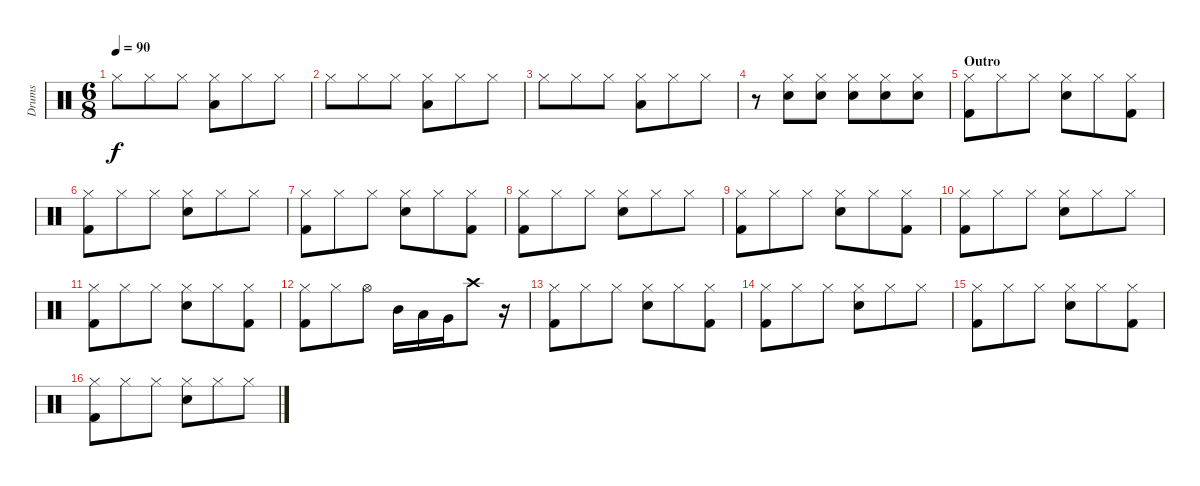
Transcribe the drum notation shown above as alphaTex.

\track ("Drums" "Drums") {instrument percussion}
\staff {score}
\articulation defaults
\ts (6 8)
\tempo 90
\clef neutral
\ks c "Hi-Hat (closed)".8{dy f} "Hi-Hat (closed)".8 "Hi-Hat (closed)".8
("Hi-Hat (closed)" "Low Floor Tom (hit)").8 "Hi-Hat (closed)".8 "Hi-Hat (closed)".8 |
"Hi-Hat (closed)".8 "Hi-Hat (closed)".8 "Hi-Hat (closed)".8 ("Hi-Hat (closed)" "Low Floor Tom (hit)").8 "Hi-Hat (closed)".8 "Hi-Hat (closed)".8 |
"Hi-Hat (closed)".8 "Hi-Hat (closed)".8 "Hi-Hat (closed)".8 ("Hi-Hat (closed)" "Low Floor Tom (hit)").8 "Hi-Hat (closed)".8 "Hi-Hat (closed)".8 |
r.8 ("Hi-Hat (closed)" "Electric Snare (hit)").8 ("Hi-Hat (closed)" "Electric Snare (hit)").8 ("Hi-Hat (closed)" "Electric Snare (hit)").8 ("Hi-Hat (closed)" "Electric Snare (hit)").8 ("Hi-Hat (closed)" "Electric Snare (hit)").8 |
\section ("" "Outro")
("Hi-Hat (closed)" "Kick (hit) 2").8 "Hi-Hat (closed)".8 "Hi-Hat (closed)".8 ("Hi-Hat (closed)" "Electric Snare (hit)").8 "Hi-Hat (closed)".8 ("Hi-Hat (closed)" "Kick (hit) 2").8 |
("Hi-Hat (closed)" "Kick (hit) 2").8 "Hi-Hat (closed)".8 "Hi-Hat (closed)".8 ("Hi-Hat (closed)" "Electric Snare (hit)").8 "Hi-Hat (closed)".8 "Hi-Hat (closed)".8 |
("Hi-Hat (closed)" "Kick (hit) 2").8 "Hi-Hat (closed)".8 "Hi-Hat (closed)".8 ("Hi-Hat (closed)" "Electric Snare (hit)").8 "Hi-Hat (closed)".8 ("Hi-Hat (closed)" "Kick (hit) 2").8 |
("Hi-Hat (closed)" "Kick (hit) 2").8 "Hi-Hat (closed)".8 "Hi-Hat (closed)".8 ("Hi-Hat (closed)" "Electric Snare (hit)").8 "Hi-Hat (closed)".8 "Hi-Hat (closed)".8 |
("Hi-Hat (closed)" "Kick (hit) 2").8 "Hi-Hat (closed)".8 "Hi-Hat (closed)".8 ("Hi-Hat (closed)" "Electric Snare (hit)").8 "Hi-Hat (closed)".8 ("Hi-Hat (closed)" "Kick (hit) 2").8 |
("Hi-Hat (closed)" "Kick (hit) 2").8 "Hi-Hat (closed)".8 "Hi-Hat (closed)".8 ("Hi-Hat (closed)" "Electric Snare (hit)").8 "Hi-Hat (closed)".8 "Hi-Hat (closed)".8 |
("Hi-Hat (closed)" "Kick (hit) 2").8 "Hi-Hat (closed)".8 "Hi-Hat (closed)".8 ("Hi-Hat (closed)" "Electric Snare (hit)").8 "Hi-Hat (closed)".8 ("Hi-Hat (closed)" "Kick (hit) 2").8 |
("Hi-Hat (closed)" "Kick (hit) 2").8 "Hi-Hat (closed)".8 "Hi-Hat (open)".8 "Mid Tom (hit)".16 "Low Tom (hit)".16 "Very Low Tom (hit)".16 "Crash high (hit)".8 r.16 |
("Hi-Hat (closed)" "Kick (hit) 2").8 "Hi-Hat (closed)".8 "Hi-Hat (closed)".8 ("Hi-Hat (closed)" "Electric Snare (hit)").8 "Hi-Hat (closed)".8 ("Hi-Hat (closed)" "Kick (hit) 2").8 |
("Hi-Hat (closed)" "Kick (hit) 2").8 "Hi-Hat (closed)".8 "Hi-Hat (closed)".8 ("Hi-Hat (closed)" "Electric Snare (hit)").8 "Hi-Hat (closed)".8 "Hi-Hat (closed)".8 |
("Hi-Hat (closed)" "Kick (hit) 2").8 "Hi-Hat (closed)".8 "Hi-Hat (closed)".8 ("Hi-Hat (closed)" "Electric Snare (hit)").8 "Hi-Hat (closed)".8 ("Hi-Hat (closed)" "Kick (hit) 2").8 |
("Hi-Hat (closed)" "Kick (hit) 2").8 "Hi-Hat (closed)".8 "Hi-Hat (closed)".8 ("Hi-Hat (closed)" "Electric Snare (hit)").8 "Hi-Hat (closed)".8 "Hi-Hat (closed)".8
